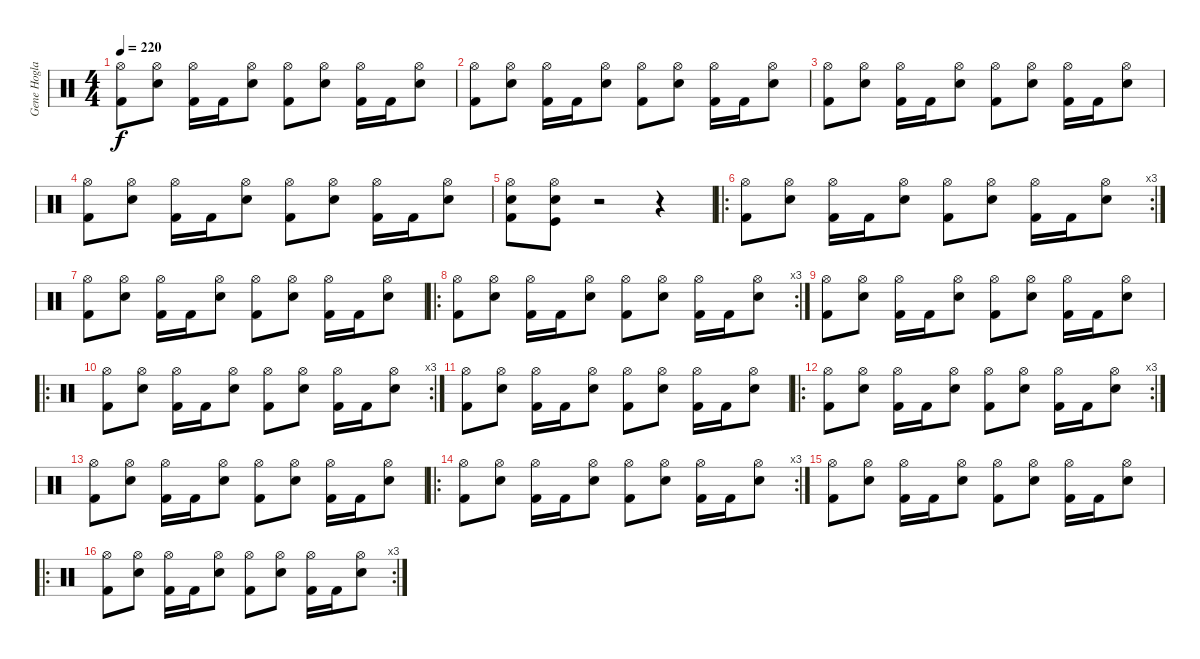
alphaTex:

\track ("Gene Hoglan" "Gene Hogla") {instrument percussion}
\staff {score}
\articulation defaults
\ts (4 4)
\tempo 220
\clef neutral
\ks c
("Hi-Hat (open)" "Kick (hit) 2").8{dy f} ("Hi-Hat (open)" "Electric Snare (hit)").8 ("Hi-Hat (open)" "Kick (hit) 2").16 "Kick (hit) 2".16 ("Hi-Hat (open)" "Electric Snare (hit)").8 ("Hi-Hat (open)" "Kick (hit) 2").8 ("Hi-Hat (open)" "Electric Snare (hit)").8 ("Hi-Hat (open)" "Kick (hit) 2").16 "Kick (hit) 2".16 ("Hi-Hat (open)" "Electric Snare (hit)").8 |
("Hi-Hat (open)" "Kick (hit) 2").8 ("Hi-Hat (open)" "Electric Snare (hit)").8 ("Hi-Hat (open)" "Kick (hit) 2").16 "Kick (hit) 2".16 ("Hi-Hat (open)" "Electric Snare (hit)").8 ("Hi-Hat (open)" "Kick (hit) 2").8 ("Hi-Hat (open)" "Electric Snare (hit)").8 ("Hi-Hat (open)" "Kick (hit) 2").16 "Kick (hit) 2".16 ("Hi-Hat (open)" "Electric Snare (hit)").8 |
("Hi-Hat (open)" "Kick (hit) 2").8 ("Hi-Hat (open)" "Electric Snare (hit)").8 ("Hi-Hat (open)" "Kick (hit) 2").16 "Kick (hit) 2".16 ("Hi-Hat (open)" "Electric Snare (hit)").8 ("Hi-Hat (open)" "Kick (hit) 2").8 ("Hi-Hat (open)" "Electric Snare (hit)").8 ("Hi-Hat (open)" "Kick (hit) 2").16 "Kick (hit) 2".16 ("Hi-Hat (open)" "Electric Snare (hit)").8 |
("Hi-Hat (open)" "Kick (hit) 2").8 ("Hi-Hat (open)" "Electric Snare (hit)").8 ("Hi-Hat (open)" "Kick (hit) 2").16 "Kick (hit) 2".16 ("Hi-Hat (open)" "Electric Snare (hit)").8 ("Hi-Hat (open)" "Kick (hit) 2").8 ("Hi-Hat (open)" "Electric Snare (hit)").8 ("Hi-Hat (open)" "Kick (hit) 2").16 "Kick (hit) 2".16 ("Hi-Hat (open)" "Electric Snare (hit)").8 |
("Hi-Hat (open)" "Electric Snare (hit)" "Kick (hit) 2").8 ("Hi-Hat (open)" "Electric Snare (hit)" "Kick (hit)").8 r.2 r.4 |
\ro
\rc 3
("Hi-Hat (open)" "Kick (hit) 2").8 ("Hi-Hat (open)" "Electric Snare (hit)").8 ("Hi-Hat (open)" "Kick (hit) 2").16 "Kick (hit) 2".16 ("Hi-Hat (open)" "Electric Snare (hit)").8 ("Hi-Hat (open)" "Kick (hit) 2").8 ("Hi-Hat (open)" "Electric Snare (hit)").8 ("Hi-Hat (open)" "Kick (hit) 2").16 "Kick (hit) 2".16 ("Hi-Hat (open)" "Electric Snare (hit)").8 |
("Hi-Hat (open)" "Kick (hit) 2").8 ("Hi-Hat (open)" "Electric Snare (hit)").8 ("Hi-Hat (open)" "Kick (hit) 2").16 "Kick (hit) 2".16 ("Hi-Hat (open)" "Electric Snare (hit)").8 ("Hi-Hat (open)" "Kick (hit) 2").8 ("Hi-Hat (open)" "Electric Snare (hit)").8 ("Hi-Hat (open)" "Kick (hit) 2").16 "Kick (hit) 2".16 ("Hi-Hat (open)" "Electric Snare (hit)").8 |
\ro
\rc 3
("Hi-Hat (open)" "Kick (hit) 2").8 ("Hi-Hat (open)" "Electric Snare (hit)").8 ("Hi-Hat (open)" "Kick (hit) 2").16 "Kick (hit) 2".16 ("Hi-Hat (open)" "Electric Snare (hit)").8 ("Hi-Hat (open)" "Kick (hit) 2").8 ("Hi-Hat (open)" "Electric Snare (hit)").8 ("Hi-Hat (open)" "Kick (hit) 2").16 "Kick (hit) 2".16 ("Hi-Hat (open)" "Electric Snare (hit)").8 |
("Hi-Hat (open)" "Kick (hit) 2").8 ("Hi-Hat (open)" "Electric Snare (hit)").8 ("Hi-Hat (open)" "Kick (hit) 2").16 "Kick (hit) 2".16 ("Hi-Hat (open)" "Electric Snare (hit)").8 ("Hi-Hat (open)" "Kick (hit) 2").8 ("Hi-Hat (open)" "Electric Snare (hit)").8 ("Hi-Hat (open)" "Kick (hit) 2").16 "Kick (hit) 2".16 ("Hi-Hat (open)" "Electric Snare (hit)").8 |
\ro
\rc 3
("Hi-Hat (open)" "Kick (hit) 2").8 ("Hi-Hat (open)" "Electric Snare (hit)").8 ("Hi-Hat (open)" "Kick (hit) 2").16 "Kick (hit) 2".16 ("Hi-Hat (open)" "Electric Snare (hit)").8 ("Hi-Hat (open)" "Kick (hit) 2").8 ("Hi-Hat (open)" "Electric Snare (hit)").8 ("Hi-Hat (open)" "Kick (hit) 2").16 "Kick (hit) 2".16 ("Hi-Hat (open)" "Electric Snare (hit)").8 |
("Hi-Hat (open)" "Kick (hit) 2").8 ("Hi-Hat (open)" "Electric Snare (hit)").8 ("Hi-Hat (open)" "Kick (hit) 2").16 "Kick (hit) 2".16 ("Hi-Hat (open)" "Electric Snare (hit)").8 ("Hi-Hat (open)" "Kick (hit) 2").8 ("Hi-Hat (open)" "Electric Snare (hit)").8 ("Hi-Hat (open)" "Kick (hit) 2").16 "Kick (hit) 2".16 ("Hi-Hat (open)" "Electric Snare (hit)").8 |
\ro
\rc 3
("Hi-Hat (open)" "Kick (hit) 2").8 ("Hi-Hat (open)" "Electric Snare (hit)").8 ("Hi-Hat (open)" "Kick (hit) 2").16 "Kick (hit) 2".16 ("Hi-Hat (open)" "Electric Snare (hit)").8 ("Hi-Hat (open)" "Kick (hit) 2").8 ("Hi-Hat (open)" "Electric Snare (hit)").8 ("Hi-Hat (open)" "Kick (hit) 2").16 "Kick (hit) 2".16 ("Hi-Hat (open)" "Electric Snare (hit)").8 |
("Hi-Hat (open)" "Kick (hit) 2").8 ("Hi-Hat (open)" "Electric Snare (hit)").8 ("Hi-Hat (open)" "Kick (hit) 2").16 "Kick (hit) 2".16 ("Hi-Hat (open)" "Electric Snare (hit)").8 ("Hi-Hat (open)" "Kick (hit) 2").8 ("Hi-Hat (open)" "Electric Snare (hit)").8 ("Hi-Hat (open)" "Kick (hit) 2").16 "Kick (hit) 2".16 ("Hi-Hat (open)" "Electric Snare (hit)").8 |
\ro
\rc 3
("Hi-Hat (open)" "Kick (hit) 2").8 ("Hi-Hat (open)" "Electric Snare (hit)").8 ("Hi-Hat (open)" "Kick (hit) 2").16 "Kick (hit) 2".16 ("Hi-Hat (open)" "Electric Snare (hit)").8 ("Hi-Hat (open)" "Kick (hit) 2").8 ("Hi-Hat (open)" "Electric Snare (hit)").8 ("Hi-Hat (open)" "Kick (hit) 2").16 "Kick (hit) 2".16 ("Hi-Hat (open)" "Electric Snare (hit)").8 |
("Hi-Hat (open)" "Kick (hit) 2").8 ("Hi-Hat (open)" "Electric Snare (hit)").8 ("Hi-Hat (open)" "Kick (hit) 2").16 "Kick (hit) 2".16 ("Hi-Hat (open)" "Electric Snare (hit)").8 ("Hi-Hat (open)" "Kick (hit) 2").8 ("Hi-Hat (open)" "Electric Snare (hit)").8 ("Hi-Hat (open)" "Kick (hit) 2").16 "Kick (hit) 2".16 ("Hi-Hat (open)" "Electric Snare (hit)").8 |
\ro
\rc 3
("Hi-Hat (open)" "Kick (hit) 2").8 ("Hi-Hat (open)" "Electric Snare (hit)").8 ("Hi-Hat (open)" "Kick (hit) 2").16 "Kick (hit) 2".16 ("Hi-Hat (open)" "Electric Snare (hit)").8 ("Hi-Hat (open)" "Kick (hit) 2").8 ("Hi-Hat (open)" "Electric Snare (hit)").8 ("Hi-Hat (open)" "Kick (hit) 2").16 "Kick (hit) 2".16 ("Hi-Hat (open)" "Electric Snare (hit)").8
